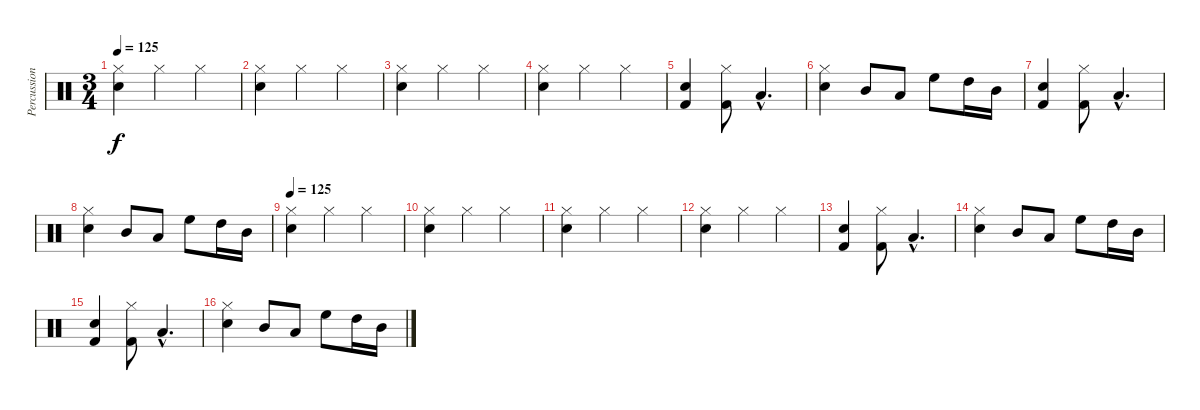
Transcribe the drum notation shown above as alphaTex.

\track ("Percussion" "Percussion") {instrument percussion}
\staff {score}
\articulation defaults
\ts (3 4)
\tempo 125
\clef neutral
\ks c
("Snare (hit) 2" "Hi-Hat (closed)").4{dy f} "Hi-Hat (closed)".4 "Hi-Hat (closed)".4 |
("Snare (hit) 2" "Hi-Hat (closed)").4 "Hi-Hat (closed)".4 "Hi-Hat (closed)".4 |
("Snare (hit) 2" "Hi-Hat (closed)").4 "Hi-Hat (closed)".4 "Hi-Hat (closed)".4 |
("Snare (hit) 2" "Hi-Hat (closed)").4 "Hi-Hat (closed)".4 "Hi-Hat (closed)".4 |
("Kick (hit) 2" "Snare (hit) 2").4 ("Kick (hit) 2" "Hi-Hat (closed)").8 "Low Tom (hit)"{hac}.4{d} |
("Snare (hit) 2" "Hi-Hat (closed)").4 "Mid Tom (hit)".8 "Low Tom (hit)".8 "High Floor Tom (hit)".8 "High Tom (hit)".16 "Mid Tom (hit)".16 |
("Kick (hit) 2" "Snare (hit) 2").4 ("Kick (hit) 2" "Hi-Hat (closed)").8 "Low Tom (hit)"{hac}.4{d} |
("Snare (hit) 2" "Hi-Hat (closed)").4 "Mid Tom (hit)".8 "Low Tom (hit)".8 "High Floor Tom (hit)".8 "High Tom (hit)".16 "Mid Tom (hit)".16 |
\tempo 125
("Snare (hit) 2" "Hi-Hat (closed)").4 "Hi-Hat (closed)".4 "Hi-Hat (closed)".4 |
("Snare (hit) 2" "Hi-Hat (closed)").4 "Hi-Hat (closed)".4 "Hi-Hat (closed)".4 |
("Snare (hit) 2" "Hi-Hat (closed)").4 "Hi-Hat (closed)".4 "Hi-Hat (closed)".4 |
("Snare (hit) 2" "Hi-Hat (closed)").4 "Hi-Hat (closed)".4 "Hi-Hat (closed)".4 |
("Kick (hit) 2" "Snare (hit) 2").4 ("Kick (hit) 2" "Hi-Hat (closed)").8 "Low Tom (hit)"{hac}.4{d} |
("Snare (hit) 2" "Hi-Hat (closed)").4 "Mid Tom (hit)".8 "Low Tom (hit)".8 "High Floor Tom (hit)".8 "High Tom (hit)".16 "Mid Tom (hit)".16 |
("Kick (hit) 2" "Snare (hit) 2").4 ("Kick (hit) 2" "Hi-Hat (closed)").8 "Low Tom (hit)"{hac}.4{d} |
("Snare (hit) 2" "Hi-Hat (closed)").4 "Mid Tom (hit)".8 "Low Tom (hit)".8 "High Floor Tom (hit)".8 "High Tom (hit)".16 "Mid Tom (hit)".16
